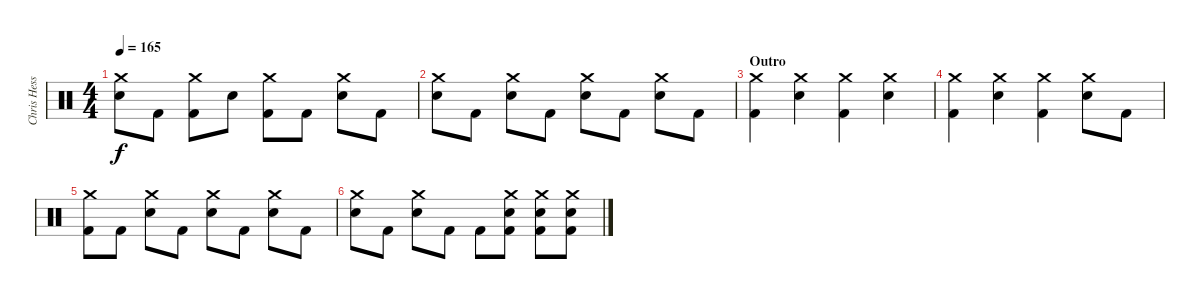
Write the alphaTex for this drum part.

\track ("Chris Hesse" "Chris Hess") {instrument percussion}
\staff {score}
\articulation defaults
\ts (4 4)
\tempo 165
\clef neutral
\ks c
("Crash medium (hit)" "Snare (hit) 2").8{dy f} "Kick (hit) 2".8 ("Crash medium (hit)" "Kick (hit) 2").8 "Snare (hit) 2".8 ("Crash medium (hit)" "Kick (hit) 2").8 "Kick (hit) 2".8 ("Crash medium (hit)" "Snare (hit) 2").8 "Kick (hit) 2".8 |
("Crash medium (hit)" "Snare (hit) 2").8 "Kick (hit) 2".8 ("Crash medium (hit)" "Snare (hit) 2").8 "Kick (hit) 2".8 ("Crash medium (hit)" "Snare (hit) 2").8 "Kick (hit) 2".8 ("Crash medium (hit)" "Snare (hit) 2").8 "Kick (hit) 2".8 |
\section ("" "Outro")
("Crash medium (hit)" "Kick (hit) 2").4 ("Crash medium (hit)" "Snare (hit) 2").4 ("Crash medium (hit)" "Kick (hit) 2").4 ("Crash medium (hit)" "Snare (hit) 2").4 |
("Crash medium (hit)" "Kick (hit) 2").4 ("Crash medium (hit)" "Snare (hit) 2").4 ("Crash medium (hit)" "Kick (hit) 2").4 ("Crash medium (hit)" "Snare (hit) 2").8 "Kick (hit) 2".8 |
("Crash medium (hit)" "Kick (hit) 2").8 "Kick (hit) 2".8 ("Crash medium (hit)" "Snare (hit) 2").8 "Kick (hit) 2".8 ("Crash medium (hit)" "Snare (hit) 2").8 "Kick (hit) 2".8 ("Crash medium (hit)" "Snare (hit) 2").8 "Kick (hit) 2".8 |
("Crash medium (hit)" "Snare (hit) 2").8 "Kick (hit) 2".8 ("Crash medium (hit)" "Snare (hit) 2").8 "Kick (hit) 2".8 "Kick (hit) 2".8 ("Crash medium (hit)" "Snare (hit) 2" "Kick (hit) 2").8 ("Crash medium (hit)" "Snare (hit) 2" "Kick (hit) 2").8 ("Crash medium (hit)" "Snare (hit) 2" "Kick (hit) 2").8
